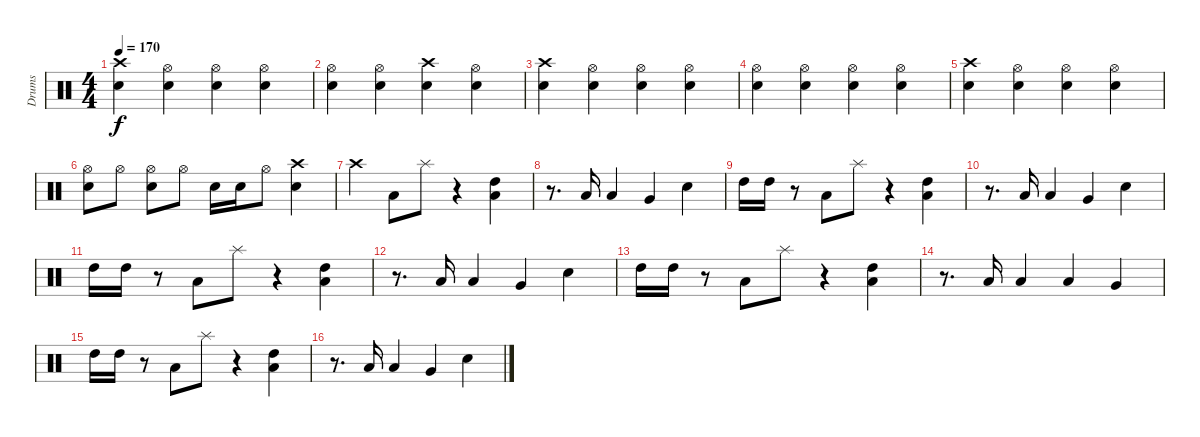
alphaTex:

\track ("Drums" "Drums") {instrument percussion}
\staff {score}
\articulation defaults
\ts (4 4)
\tempo 170
\clef neutral
\ks c
("Crash high (hit)" "Snare (hit) 2").4{dy f} ("Hi-Hat (open)" "Snare (hit) 2").4 ("Hi-Hat (open)" "Snare (hit) 2").4 ("Hi-Hat (open)" "Snare (hit) 2").4 |
("Hi-Hat (open)" "Snare (hit) 2").4 ("Hi-Hat (open)" "Snare (hit) 2").4 ("Crash high (hit)" "Snare (hit) 2").4 ("Hi-Hat (open)" "Snare (hit) 2").4 |
("Crash high (hit)" "Snare (hit) 2").4 ("Hi-Hat (open)" "Snare (hit) 2").4 ("Hi-Hat (open)" "Snare (hit) 2").4 ("Hi-Hat (open)" "Snare (hit) 2").4 |
("Hi-Hat (open)" "Snare (hit) 2").4 ("Hi-Hat (open)" "Snare (hit) 2").4 ("Hi-Hat (open)" "Snare (hit) 2").4 ("Hi-Hat (open)" "Snare (hit) 2").4 |
("Crash high (hit)" "Snare (hit) 2").4 ("Hi-Hat (open)" "Snare (hit) 2").4 ("Hi-Hat (open)" "Snare (hit) 2").4 ("Hi-Hat (open)" "Snare (hit) 2").4 |
("Hi-Hat (open)" "Snare (hit) 2").8 "Hi-Hat (open)".8 ("Hi-Hat (open)" "Snare (hit) 2").8 "Hi-Hat (open)".8 "Snare (hit) 2".16 "Snare (hit) 2".16 "Hi-Hat (open)".8 ("Crash high (hit)" "Snare (hit) 2").4 |
"Crash high (hit)".4 "Low Tom (hit)".8 "Splash (hit)".8 r.4 ("High Tom (hit)" "Low Tom (hit)").4 |
r.8{d} "Low Tom (hit)".16 "Low Tom (hit)".4 "Very Low Tom (hit)".4 "Snare (hit) 2".4 |
"High Tom (hit)".16 "High Tom (hit)".16 r.8 "Low Tom (hit)".8 "Splash (hit)".8 r.4 ("High Tom (hit)" "Low Tom (hit)").4 |
r.8{d} "Low Tom (hit)".16 "Low Tom (hit)".4 "Very Low Tom (hit)".4 "Snare (hit) 2".4 |
"High Tom (hit)".16 "High Tom (hit)".16 r.8 "Low Tom (hit)".8 "Splash (hit)".8 r.4 ("High Tom (hit)" "Low Tom (hit)").4 |
r.8{d} "Low Tom (hit)".16 "Low Tom (hit)".4 "Very Low Tom (hit)".4 "Snare (hit) 2".4 |
"High Tom (hit)".16 "High Tom (hit)".16 r.8 "Low Tom (hit)".8 "Splash (hit)".8 r.4 ("High Tom (hit)" "Low Tom (hit)").4 |
r.8{d} "Low Tom (hit)".16 "Low Tom (hit)".4 "Low Tom (hit)".4 "Very Low Tom (hit)".4 |
"High Tom (hit)".16 "High Tom (hit)".16 r.8 "Low Tom (hit)".8 "Splash (hit)".8 r.4 ("High Tom (hit)" "Low Tom (hit)").4 |
r.8{d} "Low Tom (hit)".16 "Low Tom (hit)".4 "Very Low Tom (hit)".4 "Snare (hit) 2".4
